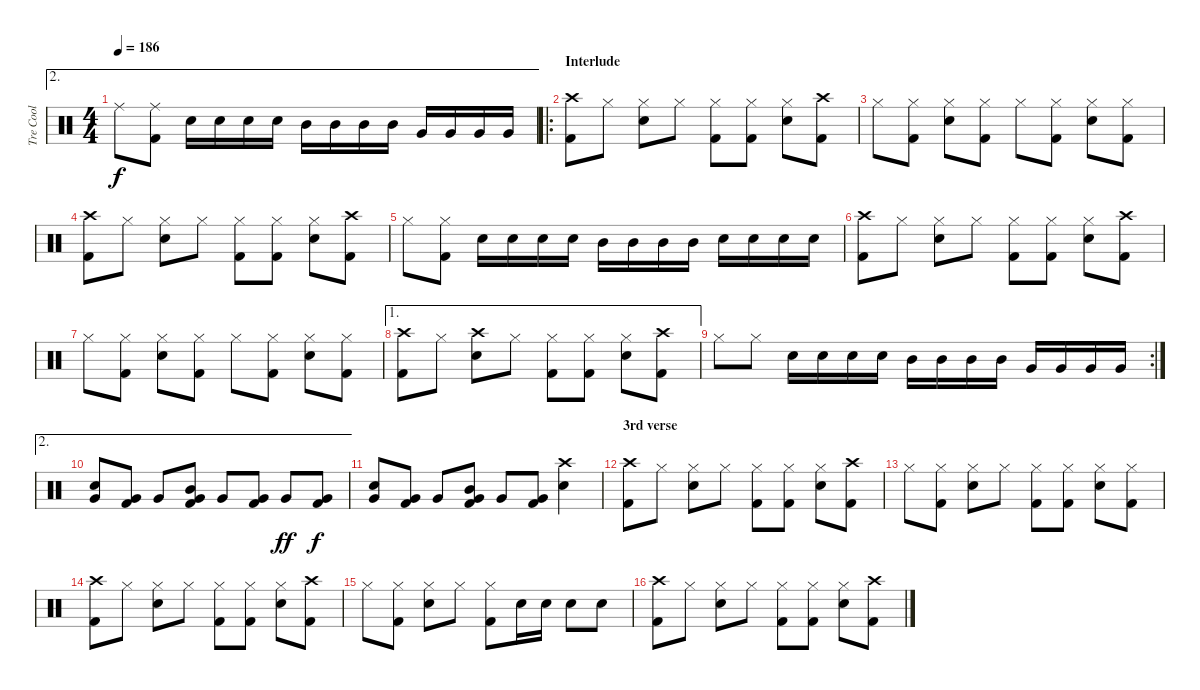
\track ("Tre Cool" "Tre Cool") {instrument percussion}
\staff {score}
\articulation defaults
\ae 2
\ts (4 4)
\tempo 186
\clef neutral
\ks c "Ride (middle)".8{dy f}
("Ride (middle)" "Kick (hit) 2").8 "Electric Snare (hit)".16 "Electric Snare (hit)".16 "Electric Snare (hit)".16 "Electric Snare (hit)".16 "Mid Tom (hit)".16 "Mid Tom (hit)".16 "Mid Tom (hit)".16 "Mid Tom (hit)".16 "Very Low Tom (hit)".16 "Very Low Tom (hit)".16 "Very Low Tom (hit)".16 "Very Low Tom (hit)".16 |
\ro
\section ("" "Interlude")
("Crash high (hit)" "Kick (hit) 2").8 "Hi-Hat (closed)".8 ("Hi-Hat (closed)" "Electric Snare (hit)").8 "Hi-Hat (closed)".8 ("Hi-Hat (closed)" "Kick (hit) 2").8 ("Hi-Hat (closed)" "Kick (hit) 2").8 ("Hi-Hat (closed)" "Electric Snare (hit)").8 ("Crash high (hit)" "Kick (hit) 2").8 |
"Hi-Hat (closed)".8 ("Hi-Hat (closed)" "Kick (hit) 2").8 ("Hi-Hat (closed)" "Electric Snare (hit)").8 ("Hi-Hat (closed)" "Kick (hit) 2").8 "Hi-Hat (closed)".8 ("Hi-Hat (closed)" "Kick (hit) 2").8 ("Hi-Hat (closed)" "Electric Snare (hit)").8 ("Hi-Hat (closed)" "Kick (hit) 2").8 |
("Crash high (hit)" "Kick (hit) 2").8 "Hi-Hat (closed)".8 ("Hi-Hat (closed)" "Electric Snare (hit)").8 "Hi-Hat (closed)".8 ("Hi-Hat (closed)" "Kick (hit) 2").8 ("Hi-Hat (closed)" "Kick (hit) 2").8 ("Hi-Hat (closed)" "Electric Snare (hit)").8 ("Crash high (hit)" "Kick (hit) 2").8 |
"Hi-Hat (closed)".8 ("Hi-Hat (closed)" "Kick (hit) 2").8 "Electric Snare (hit)".16 "Electric Snare (hit)".16 "Electric Snare (hit)".16 "Electric Snare (hit)".16 "Mid Tom (hit)".16 "Mid Tom (hit)".16 "Mid Tom (hit)".16 "Mid Tom (hit)".16 "Electric Snare (hit)".16 "Electric Snare (hit)".16 "Electric Snare (hit)".16 "Electric Snare (hit)".16 |
("Crash high (hit)" "Kick (hit) 2").8 "Hi-Hat (closed)".8 ("Hi-Hat (closed)" "Electric Snare (hit)").8 "Hi-Hat (closed)".8 ("Hi-Hat (closed)" "Kick (hit) 2").8 ("Hi-Hat (closed)" "Kick (hit) 2").8 ("Hi-Hat (closed)" "Electric Snare (hit)").8 ("Crash high (hit)" "Kick (hit) 2").8 |
"Hi-Hat (closed)".8 ("Hi-Hat (closed)" "Kick (hit) 2").8 ("Hi-Hat (closed)" "Electric Snare (hit)").8 ("Hi-Hat (closed)" "Kick (hit) 2").8 "Hi-Hat (closed)".8 ("Hi-Hat (closed)" "Kick (hit) 2").8 ("Hi-Hat (closed)" "Electric Snare (hit)").8 ("Hi-Hat (closed)" "Kick (hit) 2").8 |
\ae 1
("Crash high (hit)" "Kick (hit) 2").8 "Hi-Hat (closed)".8 ("Crash high (hit)" "Electric Snare (hit)").8 "Hi-Hat (closed)".8 ("Hi-Hat (closed)" "Kick (hit) 2").8 ("Hi-Hat (closed)" "Kick (hit) 2").8 ("Hi-Hat (closed)" "Electric Snare (hit)").8 ("Crash high (hit)" "Kick (hit) 2").8 |
\rc 2 "Hi-Hat (closed)".8 "Hi-Hat (closed)".8 "Electric Snare (hit)".16 "Electric Snare (hit)".16 "Electric Snare (hit)".16 "Electric Snare (hit)".16 "Mid Tom (hit)".16 "Mid Tom (hit)".16 "Mid Tom (hit)".16 "Mid Tom (hit)".16 "Very Low Tom (hit)".16 "Very Low Tom (hit)".16 "Very Low Tom (hit)".16 "Very Low Tom (hit)".16
|
\ae 2
("Very Low Tom (hit)" "Electric Snare (hit)").8 ("Very Low Tom (hit)" "Kick (hit) 2").8 "Very Low Tom (hit)".8 ("Very Low Tom (hit)" "Mid Tom (hit)" "Kick (hit) 2").8 "Very Low Tom (hit)".8 ("Very Low Tom (hit)" "Kick (hit) 2").8 "Very Low Tom (hit)".8{dy ff} ("Very Low Tom (hit)" "Kick (hit) 2").8{dy f} |
("Very Low Tom (hit)" "Electric Snare (hit)").8 ("Very Low Tom (hit)" "Kick (hit) 2").8 "Very Low Tom (hit)".8 ("Very Low Tom (hit)" "Mid Tom (hit)" "Kick (hit) 2").8 "Very Low Tom (hit)".8 ("Very Low Tom (hit)" "Kick (hit) 2").8 ("Crash high (hit)" "Electric Snare (hit)").4 |
\section ("" "3rd verse")
("Crash high (hit)" "Kick (hit) 2").8 "Hi-Hat (closed)".8 ("Hi-Hat (closed)" "Electric Snare (hit)").8 "Hi-Hat (closed)".8 ("Hi-Hat (closed)" "Kick (hit) 2").8 ("Hi-Hat (closed)" "Kick (hit) 2").8 ("Hi-Hat (closed)" "Electric Snare (hit)").8 ("Crash high (hit)" "Kick (hit) 2").8 |
"Hi-Hat (closed)".8 ("Hi-Hat (closed)" "Kick (hit) 2").8 ("Hi-Hat (closed)" "Electric Snare (hit)").8 "Hi-Hat (closed)".8 ("Hi-Hat (closed)" "Kick (hit) 2").8 ("Hi-Hat (closed)" "Kick (hit) 2").8 ("Hi-Hat (closed)" "Electric Snare (hit)").8 ("Hi-Hat (closed)" "Kick (hit) 2").8 |
("Crash high (hit)" "Kick (hit) 2").8 "Hi-Hat (closed)".8 ("Hi-Hat (closed)" "Electric Snare (hit)").8 "Hi-Hat (closed)".8 ("Hi-Hat (closed)" "Kick (hit) 2").8 ("Hi-Hat (closed)" "Kick (hit) 2").8 ("Hi-Hat (closed)" "Electric Snare (hit)").8 ("Crash high (hit)" "Kick (hit) 2").8 |
"Hi-Hat (closed)".8 ("Hi-Hat (closed)" "Kick (hit) 2").8 ("Hi-Hat (closed)" "Electric Snare (hit)").8 "Hi-Hat (closed)".8 ("Hi-Hat (closed)" "Kick (hit) 2").8 "Electric Snare (hit)".16 "Electric Snare (hit)".16 "Electric Snare (hit)".8 "Electric Snare (hit)".8 |
("Crash high (hit)" "Kick (hit) 2").8 "Hi-Hat (closed)".8 ("Hi-Hat (closed)" "Electric Snare (hit)").8 "Hi-Hat (closed)".8 ("Hi-Hat (closed)" "Kick (hit) 2").8 ("Hi-Hat (closed)" "Kick (hit) 2").8 ("Hi-Hat (closed)" "Electric Snare (hit)").8 ("Crash high (hit)" "Kick (hit) 2").8
